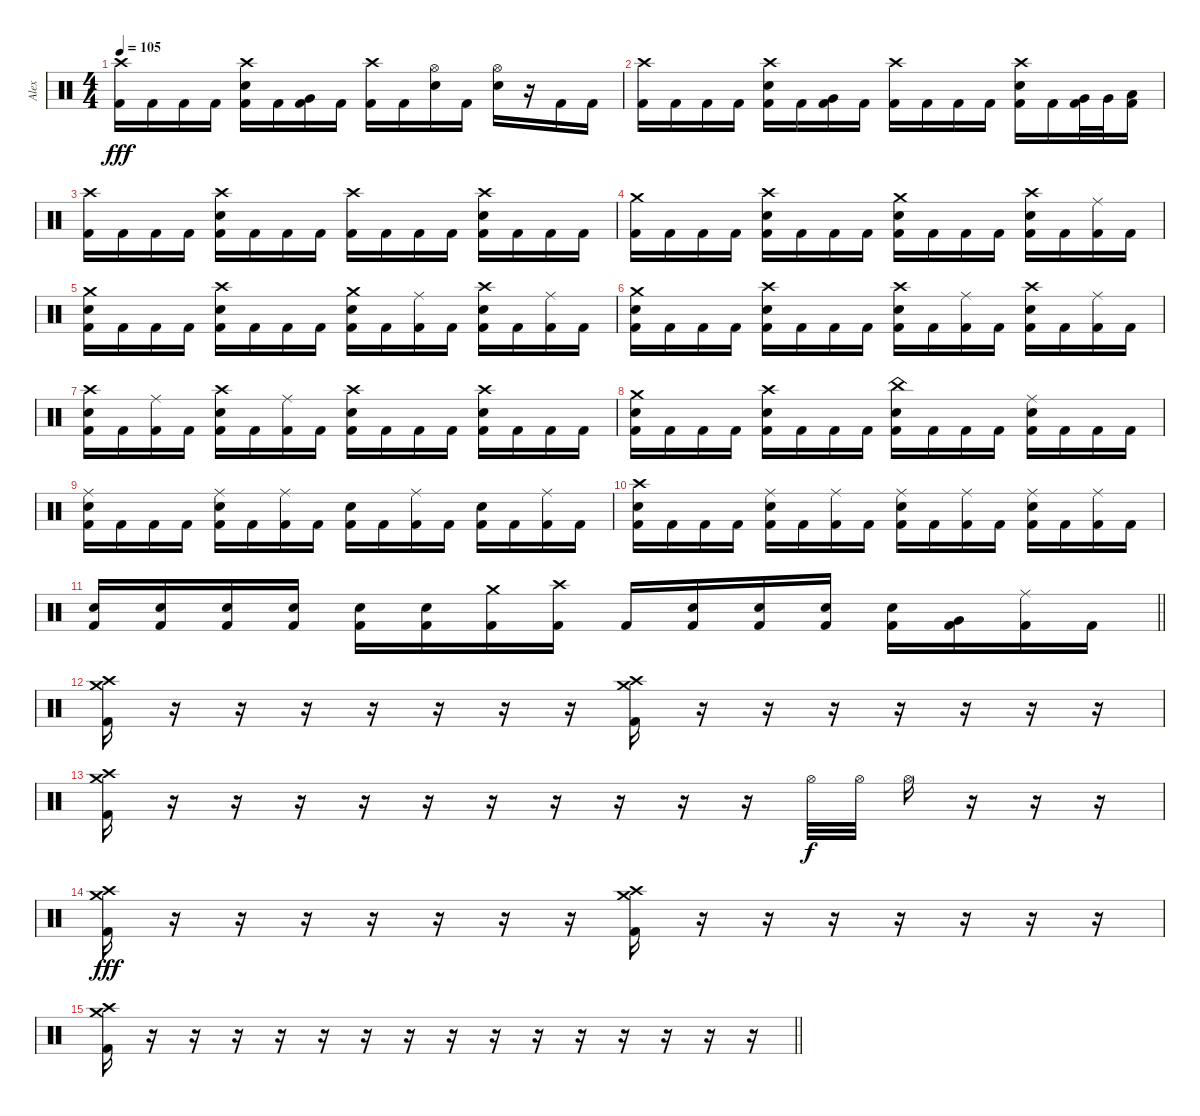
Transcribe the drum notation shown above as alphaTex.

\track ("Alex" "Alex") {instrument percussion}
\staff {score}
\articulation defaults
\ts (4 4)
\tempo 105
\clef neutral
\ks c
("Crash high (hit)" "Kick (hit) 2").16{dy fff} "Kick (hit) 2".16 "Kick (hit) 2".16 "Kick (hit) 2".16 ("Crash high (hit)" "Electric Snare (hit)" "Kick (hit) 2").16 "Kick (hit) 2".16 ("Very Low Tom (hit)" "Kick (hit) 2").16 "Kick (hit) 2".16 ("Crash high (hit)" "Kick (hit) 2").16 "Kick (hit) 2".16 ("Hi-Hat (open)" "Electric Snare (hit)").16 "Kick (hit) 2".16 ("Hi-Hat (open)" "Electric Snare (hit)").16 r.16 "Kick (hit) 2".16 "Kick (hit) 2".16 |
("Crash high (hit)" "Kick (hit) 2").16 "Kick (hit) 2".16 "Kick (hit) 2".16 "Kick (hit) 2".16 ("Crash high (hit)" "Electric Snare (hit)" "Kick (hit) 2").16 "Kick (hit) 2".16 ("Very Low Tom (hit)" "Kick (hit) 2").16 "Kick (hit) 2".16 ("Crash high (hit)" "Kick (hit) 2").16 "Kick (hit) 2".16 "Kick (hit) 2".16 "Kick (hit) 2".16 ("Crash high (hit)" "Electric Snare (hit)" "Kick (hit) 2").16 "Kick (hit) 2".16 ("Very Low Tom (hit)" "Kick (hit) 2").32 "Very Low Tom (hit)".32 ("Low Floor Tom (hit)" "Kick (hit) 2").16 |
("Crash high (hit)" "Kick (hit) 2").16 "Kick (hit) 2".16 "Kick (hit) 2".16 "Kick (hit) 2".16 ("Crash high (hit)" "Electric Snare (hit)" "Kick (hit) 2").16 "Kick (hit) 2".16 "Kick (hit) 2".16 "Kick (hit) 2".16 ("Crash high (hit)" "Kick (hit) 2").16 "Kick (hit) 2".16 "Kick (hit) 2".16 "Kick (hit) 2".16 ("Crash high (hit)" "Electric Snare (hit)" "Kick (hit) 2").16 "Kick (hit) 2".16 "Kick (hit) 2".16 "Kick (hit) 2".16 |
("Crash medium (hit)" "Kick (hit) 2").16 "Kick (hit) 2".16 "Kick (hit) 2".16 "Kick (hit) 2".16 ("Crash high (hit)" "Electric Snare (hit)" "Kick (hit) 2").16 "Kick (hit) 2".16 "Kick (hit) 2".16 "Kick (hit) 2".16 ("Crash medium (hit)" "Electric Snare (hit)" "Kick (hit) 2").16 "Kick (hit) 2".16 "Kick (hit) 2".16 "Kick (hit) 2".16 ("Crash high (hit)" "Electric Snare (hit)" "Kick (hit) 2").16 "Kick (hit) 2".16 ("Ride (middle)" "Kick (hit) 2").16 "Kick (hit) 2".16 |
("Crash medium (hit)" "Electric Snare (hit)" "Kick (hit) 2").16 "Kick (hit) 2".16 "Kick (hit) 2".16 "Kick (hit) 2".16 ("Crash high (hit)" "Electric Snare (hit)" "Kick (hit) 2").16 "Kick (hit) 2".16 "Kick (hit) 2".16 "Kick (hit) 2".16 ("Crash medium (hit)" "Electric Snare (hit)" "Kick (hit) 2").16 "Kick (hit) 2".16 ("Ride (middle)" "Kick (hit) 2").16 "Kick (hit) 2".16 ("Crash high (hit)" "Electric Snare (hit)" "Kick (hit) 2").16 "Kick (hit) 2".16 ("Ride (middle)" "Kick (hit) 2").16 "Kick (hit) 2".16 |
("Crash medium (hit)" "Electric Snare (hit)" "Kick (hit) 2").16 "Kick (hit) 2".16 "Kick (hit) 2".16 "Kick (hit) 2".16 ("Crash high (hit)" "Electric Snare (hit)" "Kick (hit) 2").16 "Kick (hit) 2".16 "Kick (hit) 2".16 "Kick (hit) 2".16 ("Crash high (hit)" "Electric Snare (hit)" "Kick (hit) 2").16 "Kick (hit) 2".16 ("Ride (middle)" "Kick (hit) 2").16 "Kick (hit) 2".16 ("Crash high (hit)" "Electric Snare (hit)" "Kick (hit) 2").16 "Kick (hit) 2".16 ("Ride (middle)" "Kick (hit) 2").16 "Kick (hit) 2".16 |
("Crash high (hit)" "Electric Snare (hit)" "Kick (hit) 2").16 "Kick (hit) 2".16 ("Ride (middle)" "Kick (hit) 2").16 "Kick (hit) 2".16 ("Crash high (hit)" "Electric Snare (hit)" "Kick (hit) 2").16 "Kick (hit) 2".16 ("Ride (middle)" "Kick (hit) 2").16 "Kick (hit) 2".16 ("Crash high (hit)" "Electric Snare (hit)" "Kick (hit) 2").16 "Kick (hit) 2".16 "Kick (hit) 2".16 "Kick (hit) 2".16 ("Crash high (hit)" "Electric Snare (hit)" "Kick (hit) 2").16 "Kick (hit) 2".16 "Kick (hit) 2".16 "Kick (hit) 2".16 |
("Crash medium (hit)" "Electric Snare (hit)" "Kick (hit) 2").16 "Kick (hit) 2".16 "Kick (hit) 2".16 "Kick (hit) 2".16 ("Crash high (hit)" "Electric Snare (hit)" "Kick (hit) 2").16 "Kick (hit) 2".16 "Kick (hit) 2".16 "Kick (hit) 2".16 ("China (hit)" "Electric Snare (hit)" "Kick (hit) 2").16 "Kick (hit) 2".16 "Kick (hit) 2".16 "Kick (hit) 2".16 ("Ride (middle)" "Electric Snare (hit)" "Kick (hit) 2").16 "Kick (hit) 2".16 "Kick (hit) 2".16 "Kick (hit) 2".16 |
("Ride (middle)" "Electric Snare (hit)" "Kick (hit) 2").16 "Kick (hit) 2".16 "Kick (hit) 2".16 "Kick (hit) 2".16 ("Ride (middle)" "Electric Snare (hit)" "Kick (hit) 2").16 "Kick (hit) 2".16 ("Ride (middle)" "Kick (hit) 2").16 "Kick (hit) 2".16 ("Electric Snare (hit)" "Kick (hit) 2").16 "Kick (hit) 2".16 ("Ride (middle)" "Kick (hit) 2").16 "Kick (hit) 2".16 ("Electric Snare (hit)" "Kick (hit) 2").16 "Kick (hit) 2".16 ("Ride (middle)" "Kick (hit) 2").16 "Kick (hit) 2".16 |
("Crash high (hit)" "Electric Snare (hit)" "Kick (hit) 2").16 "Kick (hit) 2".16 "Kick (hit) 2".16 "Kick (hit) 2".16 ("Ride (middle)" "Electric Snare (hit)" "Kick (hit) 2").16 "Kick (hit) 2".16 ("Ride (middle)" "Kick (hit) 2").16 "Kick (hit) 2".16 ("Ride (middle)" "Electric Snare (hit)" "Kick (hit) 2").16 "Kick (hit) 2".16 ("Ride (middle)" "Kick (hit) 2").16 "Kick (hit) 2".16 ("Ride (middle)" "Electric Snare (hit)" "Kick (hit) 2").16 "Kick (hit) 2".16 ("Ride (middle)" "Kick (hit) 2").16 "Kick (hit) 2".16 |
\barLineRight lightlight
("Electric Snare (hit)" "Kick (hit) 2").16 ("Electric Snare (hit)" "Kick (hit) 2").16 ("Electric Snare (hit)" "Kick (hit) 2").16 ("Electric Snare (hit)" "Kick (hit) 2").16 ("Electric Snare (hit)" "Kick (hit) 2").16 ("Electric Snare (hit)" "Kick (hit) 2").16 ("Crash medium (hit)" "Kick (hit) 2").16 ("Crash high (hit)" "Kick (hit) 2").16 "Kick (hit) 2".16 ("Electric Snare (hit)" "Kick (hit) 2").16 ("Electric Snare (hit)" "Kick (hit) 2").16 ("Electric Snare (hit)" "Kick (hit) 2").16 ("Electric Snare (hit)" "Kick (hit) 2").16 ("Very Low Tom (hit)" "Kick (hit) 2").16 ("Ride (middle)" "Kick (hit) 2").16 "Kick (hit) 2".16 |
\section ("" "")
("Crash high (hit)" "Crash medium (hit)" "Kick (hit) 2").16 r.16 r.16 r.16 r.16 r.16 r.16 r.16 ("Crash high (hit)" "Crash medium (hit)" "Kick (hit) 2").16 r.16 r.16 r.16 r.16 r.16 r.16 r.16 |
("Crash high (hit)" "Crash medium (hit)" "Kick (hit) 2").16 r.16 r.16 r.16 r.16 r.16 r.16 r.16 r.16 r.16 r.16 "Hi-Hat (open)".32{dy f} "Hi-Hat (open)".32 "Hi-Hat (open)".16 r.16 r.16 r.16 |
("Crash high (hit)" "Crash medium (hit)" "Kick (hit) 2").16{dy fff} r.16 r.16 r.16 r.16 r.16 r.16 r.16 ("Crash high (hit)" "Crash medium (hit)" "Kick (hit) 2").16 r.16 r.16 r.16 r.16 r.16 r.16 r.16 |
\barLineRight lightlight
("Crash high (hit)" "Crash medium (hit)" "Kick (hit) 2").16 r.16 r.16 r.16 r.16 r.16 r.16 r.16 r.16 r.16 r.16 r.16 r.16 r.16 r.16 r.16
